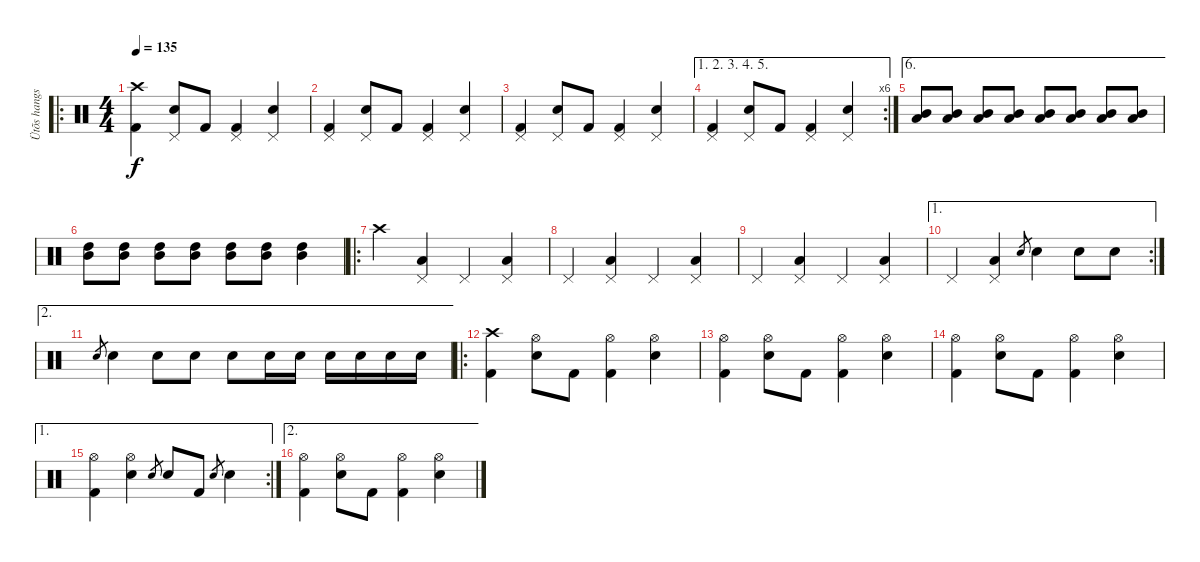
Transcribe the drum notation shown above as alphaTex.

\track ("Ütõs hangszer" "Ütõs hangs") {instrument percussion}
\staff {score}
\articulation defaults
\ro
\ts (4 4)
\tempo 135
\clef neutral
\ks c
("Crash high (hit)" "Kick (hit) 2").4{dy f} ("Pedal Hi-Hat (hit)" "Snare (hit) 2").8 "Kick (hit) 2".8 ("Pedal Hi-Hat (hit)" "Kick (hit) 2").4 ("Pedal Hi-Hat (hit)" "Snare (hit) 2").4 |
("Pedal Hi-Hat (hit)" "Kick (hit) 2").4 ("Pedal Hi-Hat (hit)" "Snare (hit) 2").8 "Kick (hit) 2".8 ("Pedal Hi-Hat (hit)" "Kick (hit) 2").4 ("Pedal Hi-Hat (hit)" "Snare (hit) 2").4 |
("Pedal Hi-Hat (hit)" "Kick (hit) 2").4 ("Pedal Hi-Hat (hit)" "Snare (hit) 2").8 "Kick (hit) 2".8 ("Pedal Hi-Hat (hit)" "Kick (hit) 2").4 ("Pedal Hi-Hat (hit)" "Snare (hit) 2").4 |
\ae (1 2 3 4 5)
\rc 6
("Pedal Hi-Hat (hit)" "Kick (hit) 2").4 ("Pedal Hi-Hat (hit)" "Snare (hit) 2").8 "Kick (hit) 2".8 ("Pedal Hi-Hat (hit)" "Kick (hit) 2").4 ("Pedal Hi-Hat (hit)" "Snare (hit) 2").4 |
\ae 6
("Low Tom (hit)" "Mid Tom (hit)").8 ("Low Tom (hit)" "Mid Tom (hit)").8 ("Low Tom (hit)" "Mid Tom (hit)").8 ("Low Tom (hit)" "Mid Tom (hit)").8 ("Low Tom (hit)" "Mid Tom (hit)").8 ("Low Tom (hit)" "Mid Tom (hit)").8 ("Low Tom (hit)" "Mid Tom (hit)").8 ("Low Tom (hit)" "Mid Tom (hit)").8 |
("Mid Tom (hit)" "High Tom (hit)").8 ("Mid Tom (hit)" "High Tom (hit)").8 ("Mid Tom (hit)" "High Tom (hit)").8 ("Mid Tom (hit)" "High Tom (hit)").8 ("Mid Tom (hit)" "High Tom (hit)").8 ("Mid Tom (hit)" "High Tom (hit)").8 ("Mid Tom (hit)" "High Tom (hit)").4 |
\ro "Crash high (hit)".4
("Pedal Hi-Hat (hit)" "Low Tom (hit)").4 "Pedal Hi-Hat (hit)".4 ("Pedal Hi-Hat (hit)" "Low Tom (hit)").4 |
"Pedal Hi-Hat (hit)".4 ("Pedal Hi-Hat (hit)" "Low Tom (hit)").4 "Pedal Hi-Hat (hit)".4 ("Pedal Hi-Hat (hit)" "Low Tom (hit)").4 |
"Pedal Hi-Hat (hit)".4 ("Pedal Hi-Hat (hit)" "Low Tom (hit)").4 "Pedal Hi-Hat (hit)".4 ("Pedal Hi-Hat (hit)" "Low Tom (hit)").4 |
\ae 1
\rc 2 "Pedal Hi-Hat (hit)".4
("Pedal Hi-Hat (hit)" "Low Tom (hit)").4 "Snare (hit) 2".8{gr} "Snare (hit) 2".4 "Snare (hit) 2".8 "Snare (hit) 2".8 |
\ae 2 "Snare (hit) 2".8{gr} "Snare (hit) 2".4 "Snare (hit) 2".8 "Snare (hit) 2".8 "Snare (hit) 2".8 "Snare (hit) 2".16 "Snare (hit) 2".16 "Snare (hit) 2".16 "Snare (hit) 2".16 "Snare (hit) 2".16 "Snare (hit) 2".16
|
\ro
("Crash high (hit)" "Kick (hit) 2").4 ("Hi-Hat (open)" "Snare (hit) 2").8 "Kick (hit) 2".8 ("Hi-Hat (open)" "Kick (hit) 2").4 ("Hi-Hat (open)" "Snare (hit) 2").4 |
("Hi-Hat (open)" "Kick (hit) 2").4 ("Hi-Hat (open)" "Snare (hit) 2").8 "Kick (hit) 2".8 ("Hi-Hat (open)" "Kick (hit) 2").4 ("Hi-Hat (open)" "Snare (hit) 2").4 |
("Hi-Hat (open)" "Kick (hit) 2").4 ("Hi-Hat (open)" "Snare (hit) 2").8 "Kick (hit) 2".8 ("Hi-Hat (open)" "Kick (hit) 2").4 ("Hi-Hat (open)" "Snare (hit) 2").4 |
\ae 1
\rc 2
("Hi-Hat (open)" "Kick (hit) 2").4 ("Hi-Hat (open)" "Snare (hit) 2").4 "Snare (hit) 2".8{gr} "Snare (hit) 2".8 "Kick (hit) 2".8 "Snare (hit) 2".8{gr} "Snare (hit) 2".4 |
\ae 2
("Hi-Hat (open)" "Kick (hit) 2").4 ("Hi-Hat (open)" "Snare (hit) 2").8 "Kick (hit) 2".8 ("Hi-Hat (open)" "Kick (hit) 2").4 ("Hi-Hat (open)" "Snare (hit) 2").4
